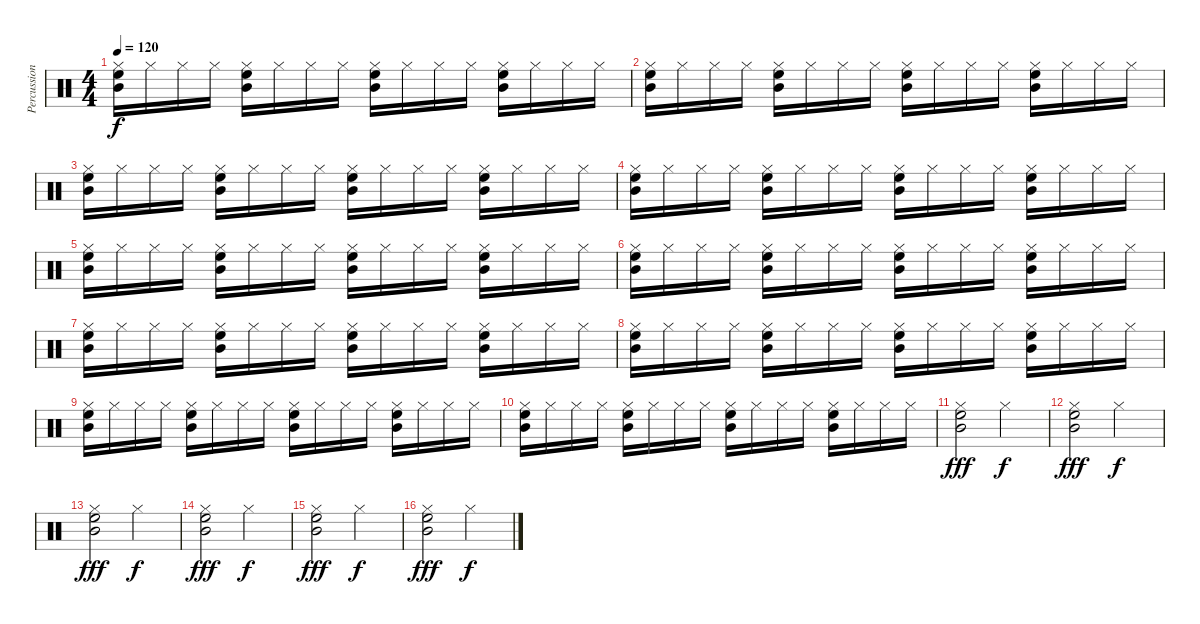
\track ("Percussion" "Percussion") {instrument percussion}
\staff {score}
\articulation defaults
\ts (4 4)
\tempo 120
\clef neutral
\ks c
("Hi-Hat (closed)" "Mid Tom (hit)" "High Floor Tom (hit)").16{dy f} "Hi-Hat (closed)".16 "Hi-Hat (closed)".16 "Hi-Hat (closed)".16 ("Hi-Hat (closed)" "Mid Tom (hit)" "High Floor Tom (hit)").16 "Hi-Hat (closed)".16 "Hi-Hat (closed)".16 "Hi-Hat (closed)".16 ("Hi-Hat (closed)" "Mid Tom (hit)" "High Floor Tom (hit)").16 "Hi-Hat (closed)".16 "Hi-Hat (closed)".16 "Hi-Hat (closed)".16 ("Hi-Hat (closed)" "Mid Tom (hit)" "High Floor Tom (hit)").16 "Hi-Hat (closed)".16 "Hi-Hat (closed)".16 "Hi-Hat (closed)".16 |
("Hi-Hat (closed)" "Mid Tom (hit)" "High Floor Tom (hit)").16 "Hi-Hat (closed)".16 "Hi-Hat (closed)".16 "Hi-Hat (closed)".16 ("Hi-Hat (closed)" "Mid Tom (hit)" "High Floor Tom (hit)").16 "Hi-Hat (closed)".16 "Hi-Hat (closed)".16 "Hi-Hat (closed)".16 ("Hi-Hat (closed)" "Mid Tom (hit)" "High Floor Tom (hit)").16 "Hi-Hat (closed)".16 "Hi-Hat (closed)".16 "Hi-Hat (closed)".16 ("Hi-Hat (closed)" "Mid Tom (hit)" "High Floor Tom (hit)").16 "Hi-Hat (closed)".16 "Hi-Hat (closed)".16 "Hi-Hat (closed)".16 |
("Hi-Hat (closed)" "Mid Tom (hit)" "High Floor Tom (hit)").16 "Hi-Hat (closed)".16 "Hi-Hat (closed)".16 "Hi-Hat (closed)".16 ("Hi-Hat (closed)" "Mid Tom (hit)" "High Floor Tom (hit)").16 "Hi-Hat (closed)".16 "Hi-Hat (closed)".16 "Hi-Hat (closed)".16 ("Hi-Hat (closed)" "Mid Tom (hit)" "High Floor Tom (hit)").16 "Hi-Hat (closed)".16 "Hi-Hat (closed)".16 "Hi-Hat (closed)".16 ("Hi-Hat (closed)" "Mid Tom (hit)" "High Floor Tom (hit)").16 "Hi-Hat (closed)".16 "Hi-Hat (closed)".16 "Hi-Hat (closed)".16 |
("Hi-Hat (closed)" "Mid Tom (hit)" "High Floor Tom (hit)").16 "Hi-Hat (closed)".16 "Hi-Hat (closed)".16 "Hi-Hat (closed)".16 ("Hi-Hat (closed)" "Mid Tom (hit)" "High Floor Tom (hit)").16 "Hi-Hat (closed)".16 "Hi-Hat (closed)".16 "Hi-Hat (closed)".16 ("Hi-Hat (closed)" "Mid Tom (hit)" "High Floor Tom (hit)").16 "Hi-Hat (closed)".16 "Hi-Hat (closed)".16 "Hi-Hat (closed)".16 ("Hi-Hat (closed)" "Mid Tom (hit)" "High Floor Tom (hit)").16 "Hi-Hat (closed)".16 "Hi-Hat (closed)".16 "Hi-Hat (closed)".16 |
("Hi-Hat (closed)" "Mid Tom (hit)" "High Floor Tom (hit)").16 "Hi-Hat (closed)".16 "Hi-Hat (closed)".16 "Hi-Hat (closed)".16 ("Hi-Hat (closed)" "Mid Tom (hit)" "High Floor Tom (hit)").16 "Hi-Hat (closed)".16 "Hi-Hat (closed)".16 "Hi-Hat (closed)".16 ("Hi-Hat (closed)" "Mid Tom (hit)" "High Floor Tom (hit)").16 "Hi-Hat (closed)".16 "Hi-Hat (closed)".16 "Hi-Hat (closed)".16 ("Hi-Hat (closed)" "Mid Tom (hit)" "High Floor Tom (hit)").16 "Hi-Hat (closed)".16 "Hi-Hat (closed)".16 "Hi-Hat (closed)".16 |
("Hi-Hat (closed)" "Mid Tom (hit)" "High Floor Tom (hit)").16 "Hi-Hat (closed)".16 "Hi-Hat (closed)".16 "Hi-Hat (closed)".16 ("Hi-Hat (closed)" "Mid Tom (hit)" "High Floor Tom (hit)").16 "Hi-Hat (closed)".16 "Hi-Hat (closed)".16 "Hi-Hat (closed)".16 ("Hi-Hat (closed)" "Mid Tom (hit)" "High Floor Tom (hit)").16 "Hi-Hat (closed)".16 "Hi-Hat (closed)".16 "Hi-Hat (closed)".16 ("Hi-Hat (closed)" "Mid Tom (hit)" "High Floor Tom (hit)").16 "Hi-Hat (closed)".16 "Hi-Hat (closed)".16 "Hi-Hat (closed)".16 |
("Hi-Hat (closed)" "Mid Tom (hit)" "High Floor Tom (hit)").16 "Hi-Hat (closed)".16 "Hi-Hat (closed)".16 "Hi-Hat (closed)".16 ("Hi-Hat (closed)" "Mid Tom (hit)" "High Floor Tom (hit)").16 "Hi-Hat (closed)".16 "Hi-Hat (closed)".16 "Hi-Hat (closed)".16 ("Hi-Hat (closed)" "Mid Tom (hit)" "High Floor Tom (hit)").16 "Hi-Hat (closed)".16 "Hi-Hat (closed)".16 "Hi-Hat (closed)".16 ("Hi-Hat (closed)" "Mid Tom (hit)" "High Floor Tom (hit)").16 "Hi-Hat (closed)".16 "Hi-Hat (closed)".16 "Hi-Hat (closed)".16 |
("Hi-Hat (closed)" "Mid Tom (hit)" "High Floor Tom (hit)").16 "Hi-Hat (closed)".16 "Hi-Hat (closed)".16 "Hi-Hat (closed)".16 ("Hi-Hat (closed)" "Mid Tom (hit)" "High Floor Tom (hit)").16 "Hi-Hat (closed)".16 "Hi-Hat (closed)".16 "Hi-Hat (closed)".16 ("Hi-Hat (closed)" "Mid Tom (hit)" "High Floor Tom (hit)").16 "Hi-Hat (closed)".16 "Hi-Hat (closed)".16 "Hi-Hat (closed)".16 ("Hi-Hat (closed)" "Mid Tom (hit)" "High Floor Tom (hit)").16 "Hi-Hat (closed)".16 "Hi-Hat (closed)".16 "Hi-Hat (closed)".16 |
("Hi-Hat (closed)" "Mid Tom (hit)" "High Floor Tom (hit)").16 "Hi-Hat (closed)".16 "Hi-Hat (closed)".16 "Hi-Hat (closed)".16 ("Hi-Hat (closed)" "Mid Tom (hit)" "High Floor Tom (hit)").16 "Hi-Hat (closed)".16 "Hi-Hat (closed)".16 "Hi-Hat (closed)".16 ("Hi-Hat (closed)" "Mid Tom (hit)" "High Floor Tom (hit)").16 "Hi-Hat (closed)".16 "Hi-Hat (closed)".16 "Hi-Hat (closed)".16 ("Hi-Hat (closed)" "Mid Tom (hit)" "High Floor Tom (hit)").16 "Hi-Hat (closed)".16 "Hi-Hat (closed)".16 "Hi-Hat (closed)".16 |
("Hi-Hat (closed)" "Mid Tom (hit)" "High Floor Tom (hit)").16 "Hi-Hat (closed)".16 "Hi-Hat (closed)".16 "Hi-Hat (closed)".16 ("Hi-Hat (closed)" "Mid Tom (hit)" "High Floor Tom (hit)").16 "Hi-Hat (closed)".16 "Hi-Hat (closed)".16 "Hi-Hat (closed)".16 ("Hi-Hat (closed)" "Mid Tom (hit)" "High Floor Tom (hit)").16 "Hi-Hat (closed)".16 "Hi-Hat (closed)".16 "Hi-Hat (closed)".16 ("Hi-Hat (closed)" "Mid Tom (hit)" "High Floor Tom (hit)").16 "Hi-Hat (closed)".16 "Hi-Hat (closed)".16 "Hi-Hat (closed)".16 |
("Hi-Hat (closed)" "Mid Tom (hit)" "High Floor Tom (hit)").2{dy fff} "Hi-Hat (closed)".2{dy f} |
("Hi-Hat (closed)" "Mid Tom (hit)" "High Floor Tom (hit)").2{dy fff} "Hi-Hat (closed)".2{dy f} |
("Hi-Hat (closed)" "Mid Tom (hit)" "High Floor Tom (hit)").2{dy fff} "Hi-Hat (closed)".2{dy f} |
("Hi-Hat (closed)" "Mid Tom (hit)" "High Floor Tom (hit)").2{dy fff} "Hi-Hat (closed)".2{dy f} |
("Hi-Hat (closed)" "Mid Tom (hit)" "High Floor Tom (hit)").2{dy fff} "Hi-Hat (closed)".2{dy f} |
("Hi-Hat (closed)" "Mid Tom (hit)" "High Floor Tom (hit)").2{dy fff} "Hi-Hat (closed)".2{dy f}
